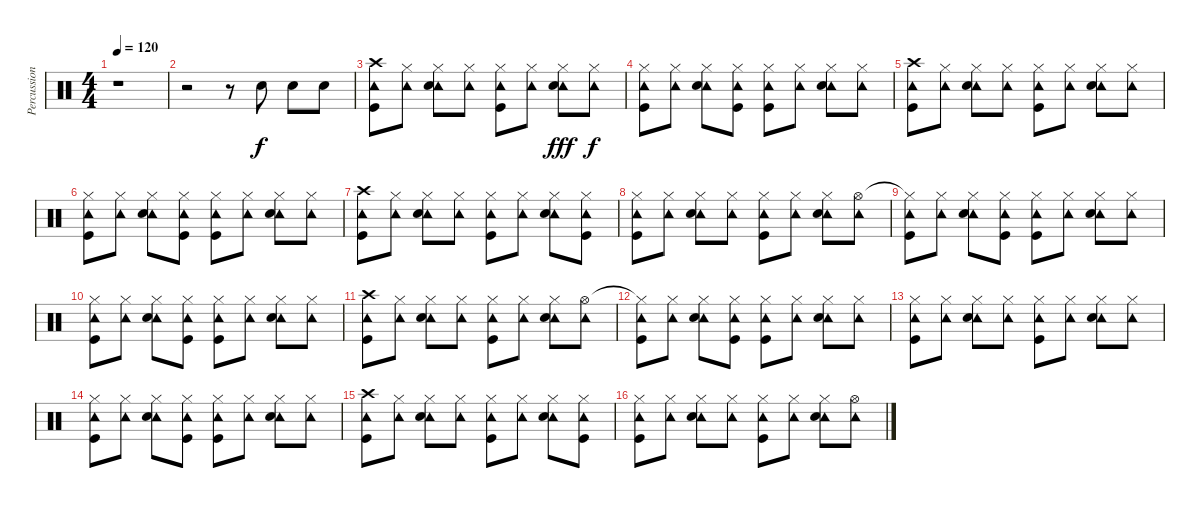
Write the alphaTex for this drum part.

\track ("Percussion" "Percussion") {instrument percussion}
\staff {score}
\articulation defaults
\ts (4 4)
\tempo 120
\clef neutral
\ks c
r.1{dy f} |
r.2 r.8 "Snare (hit) 2".8 "Snare (hit) 2".8 "Snare (hit) 2".8 |
("Crash high (hit)" "Tambourine (hit)" "Kick (hit)").8 ("Hi-Hat (closed)" "Tambourine (hit)").8 ("Hi-Hat (closed)" "Tambourine (hit)" "Snare (hit) 2").8 ("Hi-Hat (closed)" "Tambourine (hit)").8 ("Hi-Hat (closed)" "Tambourine (hit)" "Kick (hit)").8 ("Hi-Hat (closed)" "Tambourine (hit)").8 ("Hi-Hat (closed)" "Tambourine (hit)" "Snare (hit) 2").8{dy fff} ("Hi-Hat (closed)" "Tambourine (hit)").8{dy f} |
("Hi-Hat (closed)" "Tambourine (hit)" "Kick (hit)").8 ("Hi-Hat (closed)" "Tambourine (hit)").8 ("Hi-Hat (closed)" "Tambourine (hit)" "Snare (hit) 2").8 ("Hi-Hat (closed)" "Tambourine (hit)" "Kick (hit)").8 ("Hi-Hat (closed)" "Tambourine (hit)" "Kick (hit)").8 ("Hi-Hat (closed)" "Tambourine (hit)").8 ("Hi-Hat (closed)" "Tambourine (hit)" "Snare (hit) 2").8 ("Hi-Hat (closed)" "Tambourine (hit)").8 |
("Crash high (hit)" "Tambourine (hit)" "Kick (hit)").8 ("Hi-Hat (closed)" "Tambourine (hit)").8 ("Hi-Hat (closed)" "Tambourine (hit)" "Snare (hit) 2").8 ("Hi-Hat (closed)" "Tambourine (hit)").8 ("Hi-Hat (closed)" "Tambourine (hit)" "Kick (hit)").8 ("Hi-Hat (closed)" "Tambourine (hit)").8 ("Hi-Hat (closed)" "Tambourine (hit)" "Snare (hit) 2").8 ("Hi-Hat (closed)" "Tambourine (hit)").8 |
("Hi-Hat (closed)" "Tambourine (hit)" "Kick (hit)").8 ("Hi-Hat (closed)" "Tambourine (hit)").8 ("Hi-Hat (closed)" "Tambourine (hit)" "Snare (hit) 2").8 ("Hi-Hat (closed)" "Tambourine (hit)" "Kick (hit)").8 ("Hi-Hat (closed)" "Tambourine (hit)" "Kick (hit)").8 ("Hi-Hat (closed)" "Tambourine (hit)").8 ("Hi-Hat (closed)" "Tambourine (hit)" "Snare (hit) 2").8 ("Hi-Hat (closed)" "Tambourine (hit)").8 |
("Crash high (hit)" "Tambourine (hit)" "Kick (hit)").8 ("Hi-Hat (closed)" "Tambourine (hit)").8 ("Hi-Hat (closed)" "Tambourine (hit)" "Snare (hit) 2").8 ("Hi-Hat (closed)" "Tambourine (hit)").8 ("Hi-Hat (closed)" "Tambourine (hit)" "Kick (hit)").8 ("Hi-Hat (closed)" "Tambourine (hit)").8 ("Hi-Hat (closed)" "Tambourine (hit)" "Snare (hit) 2").8 ("Hi-Hat (closed)" "Tambourine (hit)" "Kick (hit)").8 |
("Hi-Hat (closed)" "Tambourine (hit)" "Kick (hit)").8 ("Hi-Hat (closed)" "Tambourine (hit)").8 ("Hi-Hat (closed)" "Tambourine (hit)" "Snare (hit) 2").8 ("Hi-Hat (closed)" "Tambourine (hit)").8 ("Hi-Hat (closed)" "Tambourine (hit)" "Kick (hit)").8 ("Hi-Hat (closed)" "Tambourine (hit)").8 ("Hi-Hat (closed)" "Tambourine (hit)" "Snare (hit) 2").8 ("Hi-Hat (open)" "Tambourine (hit)").8 |
("Hi-Hat (closed)"{t} "Tambourine (hit)" "Kick (hit)").8 ("Hi-Hat (closed)" "Tambourine (hit)").8 ("Hi-Hat (closed)" "Tambourine (hit)" "Snare (hit) 2").8 ("Hi-Hat (closed)" "Tambourine (hit)" "Kick (hit)").8 ("Hi-Hat (closed)" "Tambourine (hit)" "Kick (hit)").8 ("Hi-Hat (closed)" "Tambourine (hit)").8 ("Hi-Hat (closed)" "Tambourine (hit)" "Snare (hit) 2").8 ("Hi-Hat (closed)" "Tambourine (hit)").8 |
("Hi-Hat (closed)" "Tambourine (hit)" "Kick (hit)").8 ("Hi-Hat (closed)" "Tambourine (hit)").8 ("Hi-Hat (closed)" "Tambourine (hit)" "Snare (hit) 2").8 ("Hi-Hat (closed)" "Tambourine (hit)" "Kick (hit)").8 ("Hi-Hat (closed)" "Tambourine (hit)" "Kick (hit)").8 ("Hi-Hat (closed)" "Tambourine (hit)").8 ("Hi-Hat (closed)" "Tambourine (hit)" "Snare (hit) 2").8 ("Hi-Hat (closed)" "Tambourine (hit)").8 |
("Crash high (hit)" "Tambourine (hit)" "Kick (hit)").8 ("Hi-Hat (closed)" "Tambourine (hit)").8 ("Hi-Hat (closed)" "Tambourine (hit)" "Snare (hit) 2").8 ("Hi-Hat (closed)" "Tambourine (hit)").8 ("Hi-Hat (closed)" "Tambourine (hit)" "Kick (hit)").8 ("Hi-Hat (closed)" "Tambourine (hit)").8 ("Hi-Hat (closed)" "Tambourine (hit)" "Snare (hit) 2").8 ("Hi-Hat (open)" "Tambourine (hit)").8 |
("Hi-Hat (closed)"{t} "Tambourine (hit)" "Kick (hit)").8 ("Hi-Hat (closed)" "Tambourine (hit)").8 ("Hi-Hat (closed)" "Tambourine (hit)" "Snare (hit) 2").8 ("Hi-Hat (closed)" "Tambourine (hit)" "Kick (hit)").8 ("Hi-Hat (closed)" "Tambourine (hit)" "Kick (hit)").8 ("Hi-Hat (closed)" "Tambourine (hit)").8 ("Hi-Hat (closed)" "Tambourine (hit)" "Snare (hit) 2").8 ("Hi-Hat (closed)" "Tambourine (hit)").8 |
("Hi-Hat (closed)" "Tambourine (hit)" "Kick (hit)").8 ("Hi-Hat (closed)" "Tambourine (hit)").8 ("Hi-Hat (closed)" "Tambourine (hit)" "Snare (hit) 2").8 ("Hi-Hat (closed)" "Tambourine (hit)").8 ("Hi-Hat (closed)" "Tambourine (hit)" "Kick (hit)").8 ("Hi-Hat (closed)" "Tambourine (hit)").8 ("Hi-Hat (closed)" "Tambourine (hit)" "Snare (hit) 2").8 ("Hi-Hat (closed)" "Tambourine (hit)").8 |
("Hi-Hat (closed)" "Tambourine (hit)" "Kick (hit)").8 ("Hi-Hat (closed)" "Tambourine (hit)").8 ("Hi-Hat (closed)" "Tambourine (hit)" "Snare (hit) 2").8 ("Hi-Hat (closed)" "Tambourine (hit)" "Kick (hit)").8 ("Hi-Hat (closed)" "Tambourine (hit)" "Kick (hit)").8 ("Hi-Hat (closed)" "Tambourine (hit)").8 ("Hi-Hat (closed)" "Tambourine (hit)" "Snare (hit) 2").8 ("Hi-Hat (closed)" "Tambourine (hit)").8 |
("Crash high (hit)" "Tambourine (hit)" "Kick (hit)").8 ("Hi-Hat (closed)" "Tambourine (hit)").8 ("Hi-Hat (closed)" "Tambourine (hit)" "Snare (hit) 2").8 ("Hi-Hat (closed)" "Tambourine (hit)").8 ("Hi-Hat (closed)" "Tambourine (hit)" "Kick (hit)").8 ("Hi-Hat (closed)" "Tambourine (hit)").8 ("Hi-Hat (closed)" "Tambourine (hit)" "Snare (hit) 2").8 ("Hi-Hat (closed)" "Tambourine (hit)" "Kick (hit)").8 |
("Hi-Hat (closed)" "Tambourine (hit)" "Kick (hit)").8 ("Hi-Hat (closed)" "Tambourine (hit)").8 ("Hi-Hat (closed)" "Tambourine (hit)" "Snare (hit) 2").8 ("Hi-Hat (closed)" "Tambourine (hit)").8 ("Hi-Hat (closed)" "Tambourine (hit)" "Kick (hit)").8 ("Hi-Hat (closed)" "Tambourine (hit)").8 ("Hi-Hat (closed)" "Tambourine (hit)" "Snare (hit) 2").8 ("Hi-Hat (open)" "Tambourine (hit)").8
